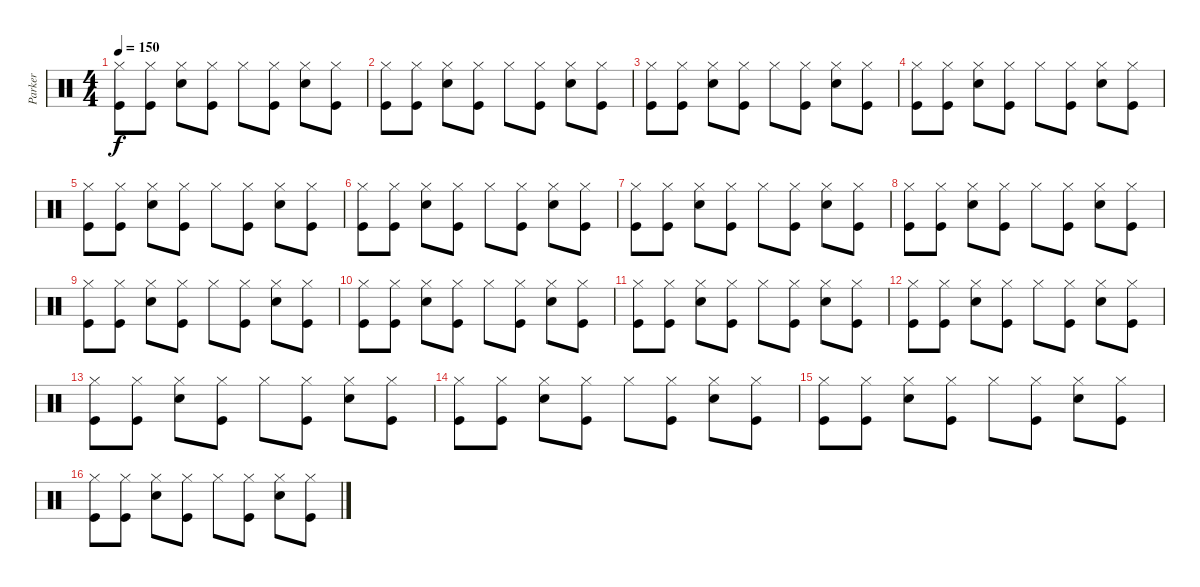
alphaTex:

\track ("Parker" "Parker") {instrument percussion}
\staff {score}
\articulation defaults
\ts (4 4)
\tempo 150
\clef neutral
\ks c
("Hi-Hat (closed)" "Kick (hit)").8{dy f} ("Hi-Hat (closed)" "Kick (hit)").8 ("Hi-Hat (closed)" "Electric Snare (hit)").8 ("Hi-Hat (closed)" "Kick (hit)").8 "Hi-Hat (closed)".8 ("Hi-Hat (closed)" "Kick (hit)").8 ("Hi-Hat (closed)" "Electric Snare (hit)").8 ("Hi-Hat (closed)" "Kick (hit)").8 |
("Hi-Hat (closed)" "Kick (hit)").8 ("Hi-Hat (closed)" "Kick (hit)").8 ("Hi-Hat (closed)" "Electric Snare (hit)").8 ("Hi-Hat (closed)" "Kick (hit)").8 "Hi-Hat (closed)".8 ("Hi-Hat (closed)" "Kick (hit)").8 ("Hi-Hat (closed)" "Electric Snare (hit)").8 ("Hi-Hat (closed)" "Kick (hit)").8 |
("Hi-Hat (closed)" "Kick (hit)").8 ("Hi-Hat (closed)" "Kick (hit)").8 ("Hi-Hat (closed)" "Electric Snare (hit)").8 ("Hi-Hat (closed)" "Kick (hit)").8 "Hi-Hat (closed)".8 ("Hi-Hat (closed)" "Kick (hit)").8 ("Hi-Hat (closed)" "Electric Snare (hit)").8 ("Hi-Hat (closed)" "Kick (hit)").8 |
("Hi-Hat (closed)" "Kick (hit)").8 ("Hi-Hat (closed)" "Kick (hit)").8 ("Hi-Hat (closed)" "Electric Snare (hit)").8 ("Hi-Hat (closed)" "Kick (hit)").8 "Hi-Hat (closed)".8 ("Hi-Hat (closed)" "Kick (hit)").8 ("Hi-Hat (closed)" "Electric Snare (hit)").8 ("Hi-Hat (closed)" "Kick (hit)").8 |
("Hi-Hat (closed)" "Kick (hit)").8 ("Hi-Hat (closed)" "Kick (hit)").8 ("Hi-Hat (closed)" "Electric Snare (hit)").8 ("Hi-Hat (closed)" "Kick (hit)").8 "Hi-Hat (closed)".8 ("Hi-Hat (closed)" "Kick (hit)").8 ("Hi-Hat (closed)" "Electric Snare (hit)").8 ("Hi-Hat (closed)" "Kick (hit)").8 |
("Hi-Hat (closed)" "Kick (hit)").8 ("Hi-Hat (closed)" "Kick (hit)").8 ("Hi-Hat (closed)" "Electric Snare (hit)").8 ("Hi-Hat (closed)" "Kick (hit)").8 "Hi-Hat (closed)".8 ("Hi-Hat (closed)" "Kick (hit)").8 ("Hi-Hat (closed)" "Electric Snare (hit)").8 ("Hi-Hat (closed)" "Kick (hit)").8 |
("Hi-Hat (closed)" "Kick (hit)").8 ("Hi-Hat (closed)" "Kick (hit)").8 ("Hi-Hat (closed)" "Electric Snare (hit)").8 ("Hi-Hat (closed)" "Kick (hit)").8 "Hi-Hat (closed)".8 ("Hi-Hat (closed)" "Kick (hit)").8 ("Hi-Hat (closed)" "Electric Snare (hit)").8 ("Hi-Hat (closed)" "Kick (hit)").8 |
("Hi-Hat (closed)" "Kick (hit)").8 ("Hi-Hat (closed)" "Kick (hit)").8 ("Hi-Hat (closed)" "Electric Snare (hit)").8 ("Hi-Hat (closed)" "Kick (hit)").8 "Hi-Hat (closed)".8 ("Hi-Hat (closed)" "Kick (hit)").8 ("Hi-Hat (closed)" "Electric Snare (hit)").8 ("Hi-Hat (closed)" "Kick (hit)").8 |
("Hi-Hat (closed)" "Kick (hit)").8 ("Hi-Hat (closed)" "Kick (hit)").8 ("Hi-Hat (closed)" "Electric Snare (hit)").8 ("Hi-Hat (closed)" "Kick (hit)").8 "Hi-Hat (closed)".8 ("Hi-Hat (closed)" "Kick (hit)").8 ("Hi-Hat (closed)" "Electric Snare (hit)").8 ("Hi-Hat (closed)" "Kick (hit)").8 |
("Hi-Hat (closed)" "Kick (hit)").8 ("Hi-Hat (closed)" "Kick (hit)").8 ("Hi-Hat (closed)" "Electric Snare (hit)").8 ("Hi-Hat (closed)" "Kick (hit)").8 "Hi-Hat (closed)".8 ("Hi-Hat (closed)" "Kick (hit)").8 ("Hi-Hat (closed)" "Electric Snare (hit)").8 ("Hi-Hat (closed)" "Kick (hit)").8 |
("Hi-Hat (closed)" "Kick (hit)").8 ("Hi-Hat (closed)" "Kick (hit)").8 ("Hi-Hat (closed)" "Electric Snare (hit)").8 ("Hi-Hat (closed)" "Kick (hit)").8 "Hi-Hat (closed)".8 ("Hi-Hat (closed)" "Kick (hit)").8 ("Hi-Hat (closed)" "Electric Snare (hit)").8 ("Hi-Hat (closed)" "Kick (hit)").8 |
("Hi-Hat (closed)" "Kick (hit)").8 ("Hi-Hat (closed)" "Kick (hit)").8 ("Hi-Hat (closed)" "Electric Snare (hit)").8 ("Hi-Hat (closed)" "Kick (hit)").8 "Hi-Hat (closed)".8 ("Hi-Hat (closed)" "Kick (hit)").8 ("Hi-Hat (closed)" "Electric Snare (hit)").8 ("Hi-Hat (closed)" "Kick (hit)").8 |
("Hi-Hat (closed)" "Kick (hit)").8 ("Hi-Hat (closed)" "Kick (hit)").8 ("Hi-Hat (closed)" "Electric Snare (hit)").8 ("Hi-Hat (closed)" "Kick (hit)").8 "Hi-Hat (closed)".8 ("Hi-Hat (closed)" "Kick (hit)").8 ("Hi-Hat (closed)" "Electric Snare (hit)").8 ("Hi-Hat (closed)" "Kick (hit)").8 |
("Hi-Hat (closed)" "Kick (hit)").8 ("Hi-Hat (closed)" "Kick (hit)").8 ("Hi-Hat (closed)" "Electric Snare (hit)").8 ("Hi-Hat (closed)" "Kick (hit)").8 "Hi-Hat (closed)".8 ("Hi-Hat (closed)" "Kick (hit)").8 ("Hi-Hat (closed)" "Electric Snare (hit)").8 ("Hi-Hat (closed)" "Kick (hit)").8 |
("Hi-Hat (closed)" "Kick (hit)").8 ("Hi-Hat (closed)" "Kick (hit)").8 ("Hi-Hat (closed)" "Electric Snare (hit)").8 ("Hi-Hat (closed)" "Kick (hit)").8 "Hi-Hat (closed)".8 ("Hi-Hat (closed)" "Kick (hit)").8 ("Hi-Hat (closed)" "Electric Snare (hit)").8 ("Hi-Hat (closed)" "Kick (hit)").8 |
("Hi-Hat (closed)" "Kick (hit)").8 ("Hi-Hat (closed)" "Kick (hit)").8 ("Hi-Hat (closed)" "Electric Snare (hit)").8 ("Hi-Hat (closed)" "Kick (hit)").8 "Hi-Hat (closed)".8 ("Hi-Hat (closed)" "Kick (hit)").8 ("Hi-Hat (closed)" "Electric Snare (hit)").8 ("Hi-Hat (closed)" "Kick (hit)").8
